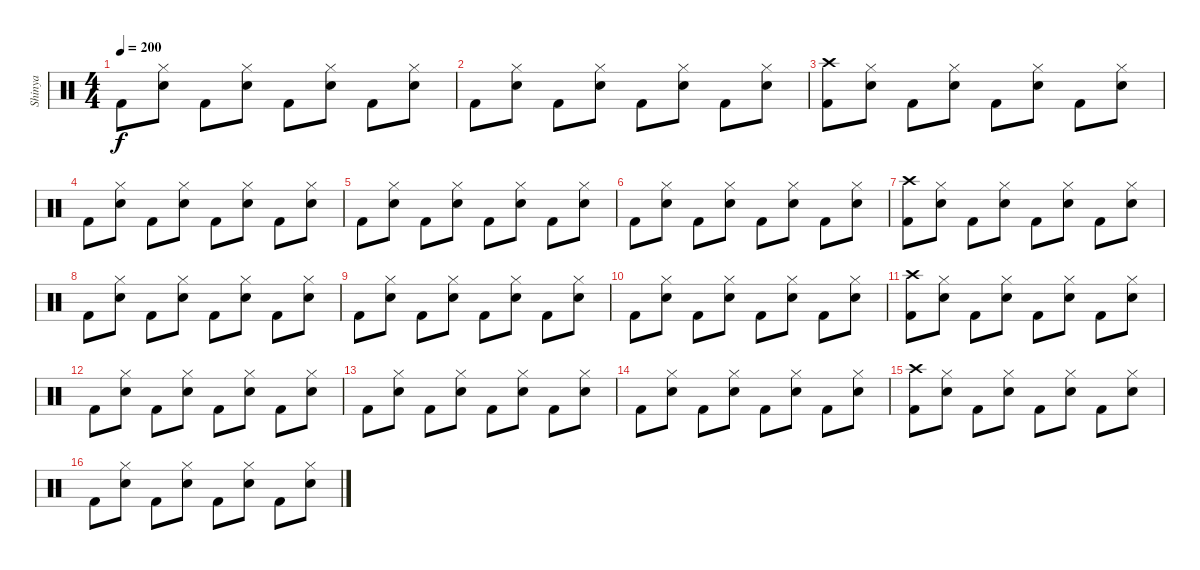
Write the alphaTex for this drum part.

\track ("Shinya" "Shinya") {instrument percussion}
\staff {score}
\articulation defaults
\ts (4 4)
\tempo 200
\clef neutral
\ks c "Kick (hit) 2".8{dy f}
("Hi-Hat (closed)" "Electric Snare (hit)").8 "Kick (hit) 2".8 ("Hi-Hat (closed)" "Electric Snare (hit)").8 "Kick (hit) 2".8 ("Hi-Hat (closed)" "Electric Snare (hit)").8 "Kick (hit) 2".8 ("Hi-Hat (closed)" "Electric Snare (hit)").8 |
"Kick (hit) 2".8 ("Hi-Hat (closed)" "Electric Snare (hit)").8 "Kick (hit) 2".8 ("Hi-Hat (closed)" "Electric Snare (hit)").8 "Kick (hit) 2".8 ("Hi-Hat (closed)" "Electric Snare (hit)").8 "Kick (hit) 2".8 ("Hi-Hat (closed)" "Electric Snare (hit)").8 |
("Crash high (hit)" "Kick (hit) 2").8 ("Hi-Hat (closed)" "Electric Snare (hit)").8 "Kick (hit) 2".8 ("Hi-Hat (closed)" "Electric Snare (hit)").8 "Kick (hit) 2".8 ("Hi-Hat (closed)" "Electric Snare (hit)").8 "Kick (hit) 2".8 ("Hi-Hat (closed)" "Electric Snare (hit)").8 |
"Kick (hit) 2".8 ("Hi-Hat (closed)" "Electric Snare (hit)").8 "Kick (hit) 2".8 ("Hi-Hat (closed)" "Electric Snare (hit)").8 "Kick (hit) 2".8 ("Hi-Hat (closed)" "Electric Snare (hit)").8 "Kick (hit) 2".8 ("Hi-Hat (closed)" "Electric Snare (hit)").8 |
"Kick (hit) 2".8 ("Hi-Hat (closed)" "Electric Snare (hit)").8 "Kick (hit) 2".8 ("Hi-Hat (closed)" "Electric Snare (hit)").8 "Kick (hit) 2".8 ("Hi-Hat (closed)" "Electric Snare (hit)").8 "Kick (hit) 2".8 ("Hi-Hat (closed)" "Electric Snare (hit)").8 |
"Kick (hit) 2".8 ("Hi-Hat (closed)" "Electric Snare (hit)").8 "Kick (hit) 2".8 ("Hi-Hat (closed)" "Electric Snare (hit)").8 "Kick (hit) 2".8 ("Hi-Hat (closed)" "Electric Snare (hit)").8 "Kick (hit) 2".8 ("Hi-Hat (closed)" "Electric Snare (hit)").8 |
("Crash high (hit)" "Kick (hit) 2").8 ("Hi-Hat (closed)" "Electric Snare (hit)").8 "Kick (hit) 2".8 ("Hi-Hat (closed)" "Electric Snare (hit)").8 "Kick (hit) 2".8 ("Hi-Hat (closed)" "Electric Snare (hit)").8 "Kick (hit) 2".8 ("Hi-Hat (closed)" "Electric Snare (hit)").8 |
"Kick (hit) 2".8 ("Hi-Hat (closed)" "Electric Snare (hit)").8 "Kick (hit) 2".8 ("Hi-Hat (closed)" "Electric Snare (hit)").8 "Kick (hit) 2".8 ("Hi-Hat (closed)" "Electric Snare (hit)").8 "Kick (hit) 2".8 ("Hi-Hat (closed)" "Electric Snare (hit)").8 |
"Kick (hit) 2".8 ("Hi-Hat (closed)" "Electric Snare (hit)").8 "Kick (hit) 2".8 ("Hi-Hat (closed)" "Electric Snare (hit)").8 "Kick (hit) 2".8 ("Hi-Hat (closed)" "Electric Snare (hit)").8 "Kick (hit) 2".8 ("Hi-Hat (closed)" "Electric Snare (hit)").8 |
"Kick (hit) 2".8 ("Hi-Hat (closed)" "Electric Snare (hit)").8 "Kick (hit) 2".8 ("Hi-Hat (closed)" "Electric Snare (hit)").8 "Kick (hit) 2".8 ("Hi-Hat (closed)" "Electric Snare (hit)").8 "Kick (hit) 2".8 ("Hi-Hat (closed)" "Electric Snare (hit)").8 |
("Crash high (hit)" "Kick (hit) 2").8 ("Hi-Hat (closed)" "Electric Snare (hit)").8 "Kick (hit) 2".8 ("Hi-Hat (closed)" "Electric Snare (hit)").8 "Kick (hit) 2".8 ("Hi-Hat (closed)" "Electric Snare (hit)").8 "Kick (hit) 2".8 ("Hi-Hat (closed)" "Electric Snare (hit)").8 |
"Kick (hit) 2".8 ("Hi-Hat (closed)" "Electric Snare (hit)").8 "Kick (hit) 2".8 ("Hi-Hat (closed)" "Electric Snare (hit)").8 "Kick (hit) 2".8 ("Hi-Hat (closed)" "Electric Snare (hit)").8 "Kick (hit) 2".8 ("Hi-Hat (closed)" "Electric Snare (hit)").8 |
"Kick (hit) 2".8 ("Hi-Hat (closed)" "Electric Snare (hit)").8 "Kick (hit) 2".8 ("Hi-Hat (closed)" "Electric Snare (hit)").8 "Kick (hit) 2".8 ("Hi-Hat (closed)" "Electric Snare (hit)").8 "Kick (hit) 2".8 ("Hi-Hat (closed)" "Electric Snare (hit)").8 |
"Kick (hit) 2".8 ("Hi-Hat (closed)" "Electric Snare (hit)").8 "Kick (hit) 2".8 ("Hi-Hat (closed)" "Electric Snare (hit)").8 "Kick (hit) 2".8 ("Hi-Hat (closed)" "Electric Snare (hit)").8 "Kick (hit) 2".8 ("Hi-Hat (closed)" "Electric Snare (hit)").8 |
("Crash high (hit)" "Kick (hit) 2").8 ("Hi-Hat (closed)" "Electric Snare (hit)").8 "Kick (hit) 2".8 ("Hi-Hat (closed)" "Electric Snare (hit)").8 "Kick (hit) 2".8 ("Hi-Hat (closed)" "Electric Snare (hit)").8 "Kick (hit) 2".8 ("Hi-Hat (closed)" "Electric Snare (hit)").8 |
"Kick (hit) 2".8 ("Hi-Hat (closed)" "Electric Snare (hit)").8 "Kick (hit) 2".8 ("Hi-Hat (closed)" "Electric Snare (hit)").8 "Kick (hit) 2".8 ("Hi-Hat (closed)" "Electric Snare (hit)").8 "Kick (hit) 2".8 ("Hi-Hat (closed)" "Electric Snare (hit)").8
